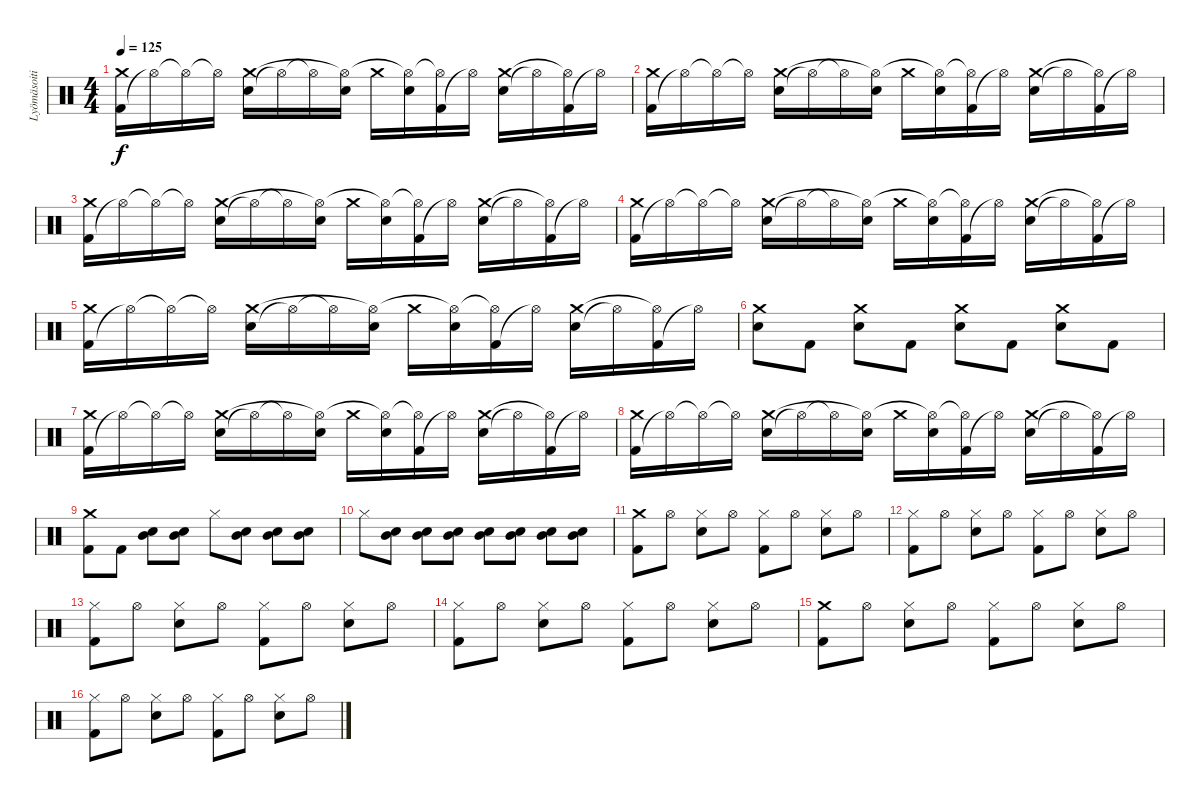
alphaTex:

\track ("Lyömäsoitin" "Lyömäsoiti") {instrument percussion}
\staff {score}
\articulation defaults
\ts (4 4)
\tempo 125
\clef neutral
\ks c
("Kick (hit) 2" "Crash medium (hit)").16{dy f} "Hi-Hat (open)"{t}.16 "Hi-Hat (open)"{t}.16 "Hi-Hat (open)"{t}.16 ("Electric Snare (hit)" "Crash medium (hit)").16 "Hi-Hat (open)"{t}.16 "Hi-Hat (open)"{t}.16 ("Electric Snare (hit)" "Hi-Hat (open)"{t}).16 "Crash medium (hit)".16 ("Electric Snare (hit)" "Hi-Hat (open)"{t}).16 ("Kick (hit) 2" "Hi-Hat (open)"{t}).16 "Hi-Hat (open)"{t}.16 ("Electric Snare (hit)" "Crash medium (hit)").16 "Hi-Hat (open)"{t}.16 ("Kick (hit) 2" "Hi-Hat (open)"{t}).16 "Hi-Hat (open)"{t}.16 |
("Kick (hit) 2" "Crash medium (hit)").16 "Hi-Hat (open)"{t}.16 "Hi-Hat (open)"{t}.16 "Hi-Hat (open)"{t}.16 ("Electric Snare (hit)" "Crash medium (hit)").16 "Hi-Hat (open)"{t}.16 "Hi-Hat (open)"{t}.16 ("Electric Snare (hit)" "Hi-Hat (open)"{t}).16 "Crash medium (hit)".16 ("Electric Snare (hit)" "Hi-Hat (open)"{t}).16 ("Kick (hit) 2" "Hi-Hat (open)"{t}).16 "Hi-Hat (open)"{t}.16 ("Electric Snare (hit)" "Crash medium (hit)").16 "Hi-Hat (open)"{t}.16 ("Kick (hit) 2" "Hi-Hat (open)"{t}).16 "Hi-Hat (open)"{t}.16 |
("Kick (hit) 2" "Crash medium (hit)").16 "Hi-Hat (open)"{t}.16 "Hi-Hat (open)"{t}.16 "Hi-Hat (open)"{t}.16 ("Electric Snare (hit)" "Crash medium (hit)").16 "Hi-Hat (open)"{t}.16 "Hi-Hat (open)"{t}.16 ("Electric Snare (hit)" "Hi-Hat (open)"{t}).16 "Crash medium (hit)".16 ("Electric Snare (hit)" "Hi-Hat (open)"{t}).16 ("Kick (hit) 2" "Hi-Hat (open)"{t}).16 "Hi-Hat (open)"{t}.16 ("Electric Snare (hit)" "Crash medium (hit)").16 "Hi-Hat (open)"{t}.16 ("Kick (hit) 2" "Hi-Hat (open)"{t}).16 "Hi-Hat (open)"{t}.16 |
("Kick (hit) 2" "Crash medium (hit)").16 "Hi-Hat (open)"{t}.16 "Hi-Hat (open)"{t}.16 "Hi-Hat (open)"{t}.16 ("Electric Snare (hit)" "Crash medium (hit)").16 "Hi-Hat (open)"{t}.16 "Hi-Hat (open)"{t}.16 ("Electric Snare (hit)" "Hi-Hat (open)"{t}).16 "Crash medium (hit)".16 ("Electric Snare (hit)" "Hi-Hat (open)"{t}).16 ("Kick (hit) 2" "Hi-Hat (open)"{t}).16 "Hi-Hat (open)"{t}.16 ("Electric Snare (hit)" "Crash medium (hit)").16 "Hi-Hat (open)"{t}.16 ("Kick (hit) 2" "Hi-Hat (open)"{t}).16 "Hi-Hat (open)"{t}.16 |
("Kick (hit) 2" "Crash medium (hit)").16 "Hi-Hat (open)"{t}.16 "Hi-Hat (open)"{t}.16 "Hi-Hat (open)"{t}.16 ("Electric Snare (hit)" "Crash medium (hit)").16 "Hi-Hat (open)"{t}.16 "Hi-Hat (open)"{t}.16 ("Electric Snare (hit)" "Hi-Hat (open)"{t}).16 "Crash medium (hit)".16 ("Electric Snare (hit)" "Hi-Hat (open)"{t}).16 ("Kick (hit) 2" "Hi-Hat (open)"{t}).16 "Hi-Hat (open)"{t}.16 ("Electric Snare (hit)" "Crash medium (hit)").16 "Hi-Hat (open)"{t}.16 ("Kick (hit) 2" "Hi-Hat (open)"{t}).16 "Hi-Hat (open)"{t}.16 |
("Crash medium (hit)" "Electric Snare (hit)").8 "Kick (hit) 2".8 ("Crash medium (hit)" "Electric Snare (hit)").8 "Kick (hit) 2".8 ("Crash medium (hit)" "Electric Snare (hit)").8 "Kick (hit) 2".8 ("Crash medium (hit)" "Electric Snare (hit)").8 "Kick (hit) 2".8 |
("Kick (hit) 2" "Crash medium (hit)").16 "Hi-Hat (open)"{t}.16 "Hi-Hat (open)"{t}.16 "Hi-Hat (open)"{t}.16 ("Electric Snare (hit)" "Crash medium (hit)").16 "Hi-Hat (open)"{t}.16 "Hi-Hat (open)"{t}.16 ("Electric Snare (hit)" "Hi-Hat (open)"{t}).16 "Crash medium (hit)".16 ("Electric Snare (hit)" "Hi-Hat (open)"{t}).16 ("Kick (hit) 2" "Hi-Hat (open)"{t}).16 "Hi-Hat (open)"{t}.16 ("Electric Snare (hit)" "Crash medium (hit)").16 "Hi-Hat (open)"{t}.16 ("Kick (hit) 2" "Hi-Hat (open)"{t}).16 "Hi-Hat (open)"{t}.16 |
("Kick (hit) 2" "Crash medium (hit)").16 "Hi-Hat (open)"{t}.16 "Hi-Hat (open)"{t}.16 "Hi-Hat (open)"{t}.16 ("Electric Snare (hit)" "Crash medium (hit)").16 "Hi-Hat (open)"{t}.16 "Hi-Hat (open)"{t}.16 ("Electric Snare (hit)" "Hi-Hat (open)"{t}).16 "Crash medium (hit)".16 ("Electric Snare (hit)" "Hi-Hat (open)"{t}).16 ("Kick (hit) 2" "Hi-Hat (open)"{t}).16 "Hi-Hat (open)"{t}.16 ("Electric Snare (hit)" "Crash medium (hit)").16 "Hi-Hat (open)"{t}.16 ("Kick (hit) 2" "Hi-Hat (open)"{t}).16 "Hi-Hat (open)"{t}.16 |
("Kick (hit) 2" "Crash medium (hit)").8 "Kick (hit) 2".8 ("Electric Snare (hit)" "Mid Tom (hit)").8 ("Electric Snare (hit)" "Mid Tom (hit)").8 "Hi-Hat (closed)".8 ("Electric Snare (hit)" "Mid Tom (hit)").8 ("Electric Snare (hit)" "Mid Tom (hit)").8 ("Electric Snare (hit)" "Mid Tom (hit)").8 |
"Hi-Hat (closed)".8 ("Electric Snare (hit)" "Mid Tom (hit)").8 ("Electric Snare (hit)" "Mid Tom (hit)").8 ("Electric Snare (hit)" "Mid Tom (hit)").8 ("Electric Snare (hit)" "Mid Tom (hit)").8 ("Electric Snare (hit)" "Mid Tom (hit)").8 ("Electric Snare (hit)" "Mid Tom (hit)").8 ("Electric Snare (hit)" "Mid Tom (hit)").8 |
("Kick (hit) 2" "Crash medium (hit)").8 "Hi-Hat (open)".8 ("Electric Snare (hit)" "Hi-Hat (closed)").8 "Hi-Hat (open)".8 ("Kick (hit) 2" "Hi-Hat (closed)").8 "Hi-Hat (open)".8 ("Electric Snare (hit)" "Hi-Hat (closed)").8 "Hi-Hat (open)".8 |
("Kick (hit) 2" "Hi-Hat (closed)").8 "Hi-Hat (open)".8 ("Electric Snare (hit)" "Hi-Hat (closed)").8 "Hi-Hat (open)".8 ("Kick (hit) 2" "Hi-Hat (closed)").8 "Hi-Hat (open)".8 ("Electric Snare (hit)" "Hi-Hat (closed)").8 "Hi-Hat (open)".8 |
("Kick (hit) 2" "Hi-Hat (closed)").8 "Hi-Hat (open)".8 ("Electric Snare (hit)" "Hi-Hat (closed)").8 "Hi-Hat (open)".8 ("Kick (hit) 2" "Hi-Hat (closed)").8 "Hi-Hat (open)".8 ("Electric Snare (hit)" "Hi-Hat (closed)").8 "Hi-Hat (open)".8 |
("Kick (hit) 2" "Hi-Hat (closed)").8 "Hi-Hat (open)".8 ("Electric Snare (hit)" "Hi-Hat (closed)").8 "Hi-Hat (open)".8 ("Kick (hit) 2" "Hi-Hat (closed)").8 "Hi-Hat (open)".8 ("Electric Snare (hit)" "Hi-Hat (closed)").8 "Hi-Hat (open)".8 |
("Kick (hit) 2" "Crash medium (hit)").8 "Hi-Hat (open)".8 ("Electric Snare (hit)" "Hi-Hat (closed)").8 "Hi-Hat (open)".8 ("Kick (hit) 2" "Hi-Hat (closed)").8 "Hi-Hat (open)".8 ("Electric Snare (hit)" "Hi-Hat (closed)").8 "Hi-Hat (open)".8 |
("Kick (hit) 2" "Hi-Hat (closed)").8 "Hi-Hat (open)".8 ("Electric Snare (hit)" "Hi-Hat (closed)").8 "Hi-Hat (open)".8 ("Kick (hit) 2" "Hi-Hat (closed)").8 "Hi-Hat (open)".8 ("Electric Snare (hit)" "Hi-Hat (closed)").8 "Hi-Hat (open)".8
